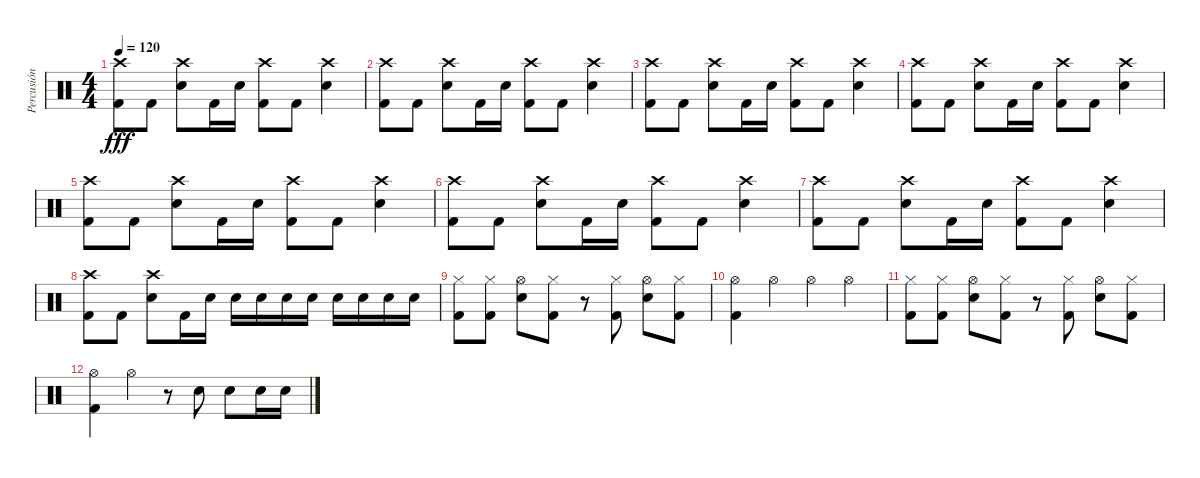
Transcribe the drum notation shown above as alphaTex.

\track ("Percusión" "Percusión") {instrument percussion}
\staff {score}
\articulation defaults
\ts (4 4)
\tempo 120
\clef neutral
\ks c
("Crash high (hit)" "Kick (hit) 2").8{dy fff} "Kick (hit) 2".8 ("Crash high (hit)" "Snare (hit) 2").8 "Kick (hit) 2".16 "Snare (hit) 2".16 ("Crash high (hit)" "Kick (hit) 2").8 "Kick (hit) 2".8 ("Crash high (hit)" "Snare (hit) 2").4 |
("Crash high (hit)" "Kick (hit) 2").8 "Kick (hit) 2".8 ("Crash high (hit)" "Snare (hit) 2").8 "Kick (hit) 2".16 "Snare (hit) 2".16 ("Crash high (hit)" "Kick (hit) 2").8 "Kick (hit) 2".8 ("Crash high (hit)" "Snare (hit) 2").4 |
("Crash high (hit)" "Kick (hit) 2").8 "Kick (hit) 2".8 ("Crash high (hit)" "Snare (hit) 2").8 "Kick (hit) 2".16 "Snare (hit) 2".16 ("Crash high (hit)" "Kick (hit) 2").8 "Kick (hit) 2".8 ("Crash high (hit)" "Snare (hit) 2").4 |
("Crash high (hit)" "Kick (hit) 2").8 "Kick (hit) 2".8 ("Crash high (hit)" "Snare (hit) 2").8 "Kick (hit) 2".16 "Snare (hit) 2".16 ("Crash high (hit)" "Kick (hit) 2").8 "Kick (hit) 2".8 ("Crash high (hit)" "Snare (hit) 2").4 |
("Crash high (hit)" "Kick (hit) 2").8 "Kick (hit) 2".8 ("Crash high (hit)" "Snare (hit) 2").8 "Kick (hit) 2".16 "Snare (hit) 2".16 ("Crash high (hit)" "Kick (hit) 2").8 "Kick (hit) 2".8 ("Crash high (hit)" "Snare (hit) 2").4 |
("Crash high (hit)" "Kick (hit) 2").8 "Kick (hit) 2".8 ("Crash high (hit)" "Snare (hit) 2").8 "Kick (hit) 2".16 "Snare (hit) 2".16 ("Crash high (hit)" "Kick (hit) 2").8 "Kick (hit) 2".8 ("Crash high (hit)" "Snare (hit) 2").4 |
("Crash high (hit)" "Kick (hit) 2").8 "Kick (hit) 2".8 ("Crash high (hit)" "Snare (hit) 2").8 "Kick (hit) 2".16 "Snare (hit) 2".16 ("Crash high (hit)" "Kick (hit) 2").8 "Kick (hit) 2".8 ("Crash high (hit)" "Snare (hit) 2").4 |
("Crash high (hit)" "Kick (hit) 2").8 "Kick (hit) 2".8 ("Crash high (hit)" "Snare (hit) 2").8 "Kick (hit) 2".16 "Snare (hit) 2".16 "Snare (hit) 2".16 "Snare (hit) 2".16 "Snare (hit) 2".16 "Snare (hit) 2".16 "Snare (hit) 2".16 "Snare (hit) 2".16 "Snare (hit) 2".16 "Snare (hit) 2".16 |
("Hi-Hat (closed)" "Kick (hit) 2").8 ("Hi-Hat (closed)" "Kick (hit) 2").8 ("Hi-Hat (open)" "Snare (hit) 2").8 ("Hi-Hat (closed)" "Kick (hit) 2").8 r.8 ("Hi-Hat (closed)" "Kick (hit) 2").8 ("Hi-Hat (open)" "Snare (hit) 2").8 ("Hi-Hat (closed)" "Kick (hit) 2").8 |
("Hi-Hat (open)" "Kick (hit) 2").4 "Hi-Hat (open)".4 "Hi-Hat (open)".4 "Hi-Hat (open)".4 |
("Hi-Hat (closed)" "Kick (hit) 2").8 ("Hi-Hat (closed)" "Kick (hit) 2").8 ("Hi-Hat (open)" "Snare (hit) 2").8 ("Hi-Hat (closed)" "Kick (hit) 2").8 r.8 ("Hi-Hat (closed)" "Kick (hit) 2").8 ("Hi-Hat (open)" "Snare (hit) 2").8 ("Hi-Hat (closed)" "Kick (hit) 2").8 |
("Hi-Hat (open)" "Kick (hit) 2").4 "Hi-Hat (open)".4 r.8 "Snare (hit) 2".8 "Snare (hit) 2".8 "Snare (hit) 2".16 "Snare (hit) 2".16
